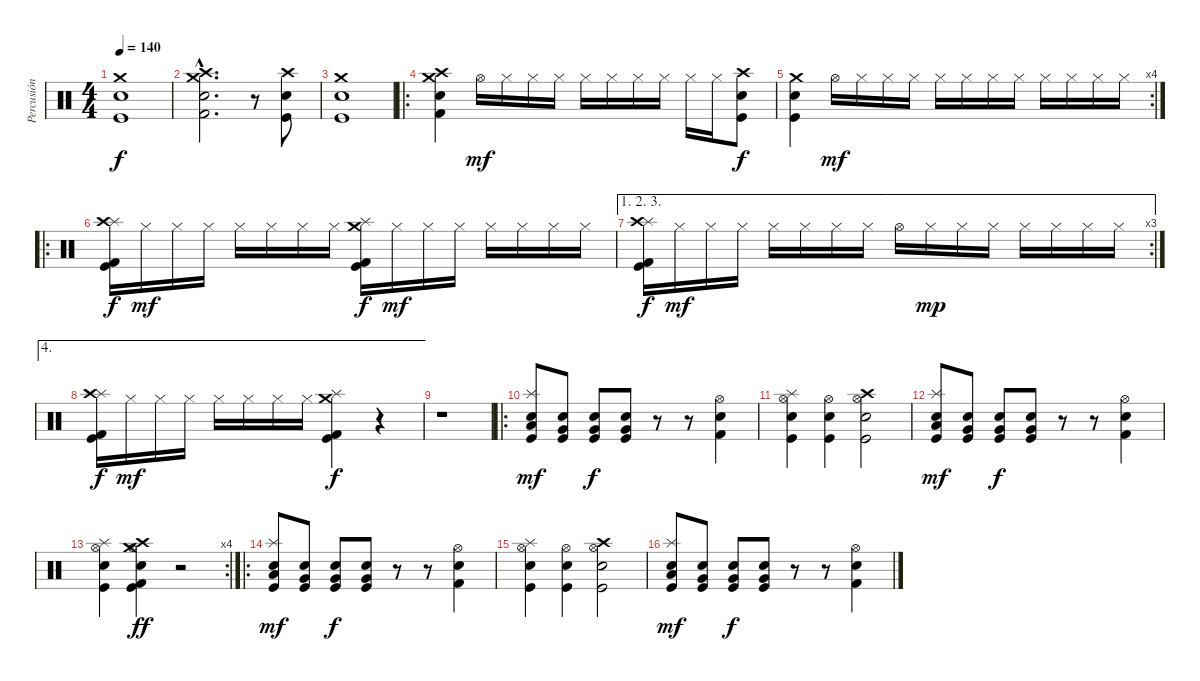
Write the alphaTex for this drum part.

\track ("Percusión" "Percusión") {instrument percussion}
\staff {score}
\articulation defaults
\ts (4 4)
\tempo 140
\clef neutral
\ks c
("Crash medium (hit)" "Kick (hit)" "Electric Snare (hit)").1{dy f} |
("Crash high (hit)"{hac} "Crash medium (hit)"{hac} "Kick (hit) 2"{hac} "Electric Snare (hit)"{hac}).2{d} r.8 ("Crash high (hit)" "Kick (hit)" "Electric Snare (hit)").8 |
("Crash medium (hit)" "Kick (hit)" "Electric Snare (hit)").1 |
\ro
("Crash high (hit)" "Crash medium (hit)" "Kick (hit) 2" "Electric Snare (hit)").4 "Hi-Hat (open)".16{dy mf} "Hi-Hat (closed)".16 "Hi-Hat (closed)".16 "Hi-Hat (closed)".16 "Hi-Hat (closed)".16 "Hi-Hat (closed)".16 "Hi-Hat (closed)".16 "Hi-Hat (closed)".16 "Hi-Hat (closed)".16 "Hi-Hat (closed)".16 ("Crash high (hit)" "Kick (hit)" "Electric Snare (hit)").8{dy f} |
\rc 4
("Crash medium (hit)" "Kick (hit)" "Electric Snare (hit)").4 "Hi-Hat (open)".16{dy mf} "Hi-Hat (closed)".16 "Hi-Hat (closed)".16 "Hi-Hat (closed)".16 "Hi-Hat (closed)".16 "Hi-Hat (closed)".16 "Hi-Hat (closed)".16 "Hi-Hat (closed)".16 "Hi-Hat (closed)".16 "Hi-Hat (closed)".16 "Hi-Hat (closed)".16 "Hi-Hat (closed)".16 |
\ro
("Splash (hit)" "Crash high (hit)" "Kick (hit) 2" "Kick (hit)").16{dy f} "Hi-Hat (closed)".16{dy mf} "Hi-Hat (closed)".16 "Hi-Hat (closed)".16 "Hi-Hat (closed)".16 "Hi-Hat (closed)".16 "Hi-Hat (closed)".16 "Hi-Hat (closed)".16 ("Crash medium (hit)" "Splash (hit)" "Kick (hit) 2" "Kick (hit)").16{dy f} "Hi-Hat (closed)".16{dy mf} "Hi-Hat (closed)".16 "Hi-Hat (closed)".16 "Hi-Hat (closed)".16 "Hi-Hat (closed)".16 "Hi-Hat (closed)".16 "Hi-Hat (closed)".16 |
\ae (1 2 3)
\rc 3
("Splash (hit)" "Crash high (hit)" "Kick (hit) 2" "Kick (hit)").16{dy f} "Hi-Hat (closed)".16{dy mf} "Hi-Hat (closed)".16 "Hi-Hat (closed)".16 "Hi-Hat (closed)".16 "Hi-Hat (closed)".16 "Hi-Hat (closed)".16 "Hi-Hat (closed)".16 "Hi-Hat (open)".16 "Hi-Hat (closed)".16{dy mp} "Hi-Hat (closed)".16 "Hi-Hat (closed)".16 "Hi-Hat (closed)".16 "Hi-Hat (closed)".16 "Hi-Hat (closed)".16 "Hi-Hat (closed)".16 |
\ae 4
("Splash (hit)" "Crash high (hit)" "Kick (hit) 2" "Kick (hit)").16{dy f} "Hi-Hat (closed)".16{dy mf} "Hi-Hat (closed)".16 "Hi-Hat (closed)".16 "Hi-Hat (closed)".16 "Hi-Hat (closed)".16 "Hi-Hat (closed)".16 "Hi-Hat (closed)".16 ("Crash medium (hit)" "Splash (hit)" "Kick (hit) 2" "Kick (hit)").4{dy f} r.4 |
r.1 |
\ro
("Splash (hit)" "Low Floor Tom (hit)" "Electric Snare (hit)" "Kick (hit)").8{dy mf} ("Very Low Tom (hit)" "Electric Snare (hit)" "Kick (hit)").8 ("Very Low Tom (hit)" "Electric Snare (hit)" "Kick (hit)").8{dy f} ("Very Low Tom (hit)" "Electric Snare (hit)" "Kick (hit)").8 r.8 r.8 ("Kick (hit) 2" "Hi-Hat (open)" "Electric Snare (hit)").4 |
("Splash (hit)" "Hi-Hat (open)" "Kick (hit)" "Electric Snare (hit)").4 ("Hi-Hat (open)" "Kick (hit)" "Electric Snare (hit)").4 ("Crash high (hit)" "Hi-Hat (open)" "Kick (hit)" "Electric Snare (hit)").2 |
("Splash (hit)" "Low Floor Tom (hit)" "Electric Snare (hit)" "Kick (hit)").8{dy mf} ("Very Low Tom (hit)" "Electric Snare (hit)" "Kick (hit)").8 ("Very Low Tom (hit)" "Electric Snare (hit)" "Kick (hit)").8{dy f} ("Very Low Tom (hit)" "Electric Snare (hit)" "Kick (hit)").8 r.8 r.8 ("Kick (hit) 2" "Hi-Hat (open)" "Electric Snare (hit)").4 |
\rc 4
("Splash (hit)" "Hi-Hat (open)" "Kick (hit)" "Electric Snare (hit)").4 ("Kick (hit) 2" "Crash high (hit)" "Crash medium (hit)" "Hi-Hat (open)" "Kick (hit)" "Electric Snare (hit)").4{dy ff} r.2 |
\ro
("Splash (hit)" "Low Floor Tom (hit)" "Electric Snare (hit)" "Kick (hit)").8{dy mf} ("Very Low Tom (hit)" "Electric Snare (hit)" "Kick (hit)").8 ("Very Low Tom (hit)" "Electric Snare (hit)" "Kick (hit)").8{dy f} ("Very Low Tom (hit)" "Electric Snare (hit)" "Kick (hit)").8 r.8 r.8 ("Kick (hit) 2" "Hi-Hat (open)" "Electric Snare (hit)").4 |
("Splash (hit)" "Hi-Hat (open)" "Kick (hit)" "Electric Snare (hit)").4 ("Hi-Hat (open)" "Kick (hit)" "Electric Snare (hit)").4 ("Crash high (hit)" "Hi-Hat (open)" "Kick (hit)" "Electric Snare (hit)").2 |
("Splash (hit)" "Low Floor Tom (hit)" "Electric Snare (hit)" "Kick (hit)").8{dy mf} ("Very Low Tom (hit)" "Electric Snare (hit)" "Kick (hit)").8 ("Very Low Tom (hit)" "Electric Snare (hit)" "Kick (hit)").8{dy f} ("Very Low Tom (hit)" "Electric Snare (hit)" "Kick (hit)").8 r.8 r.8 ("Kick (hit) 2" "Hi-Hat (open)" "Electric Snare (hit)").4
